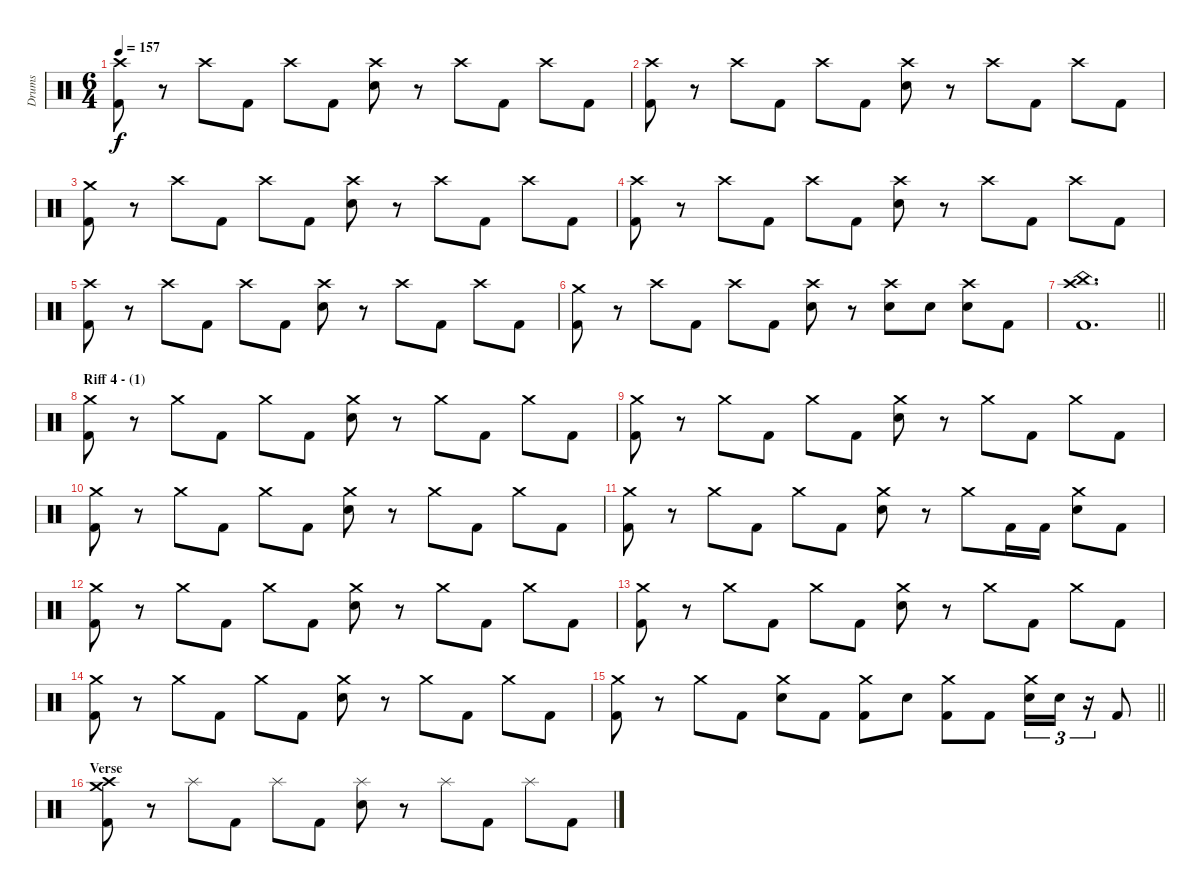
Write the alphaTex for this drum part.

\track ("Drums" "Drums") {instrument percussion}
\staff {score}
\articulation defaults
\ts (6 4)
\tempo 157
\clef neutral
\ks c
("Crash high (hit)" "Kick (hit) 2").8{dy f} r.8 "Crash high (hit)".8 "Kick (hit) 2".8 "Crash high (hit)".8 "Kick (hit) 2".8 ("Crash high (hit)" "Electric Snare (hit)").8 r.8 "Crash high (hit)".8 "Kick (hit) 2".8 "Crash high (hit)".8 "Kick (hit) 2".8 |
("Crash high (hit)" "Kick (hit) 2").8 r.8 "Crash high (hit)".8 "Kick (hit) 2".8 "Crash high (hit)".8 "Kick (hit) 2".8 ("Crash high (hit)" "Electric Snare (hit)").8 r.8 "Crash high (hit)".8 "Kick (hit) 2".8 "Crash high (hit)".8 "Kick (hit) 2".8 |
("Crash medium (hit)" "Kick (hit) 2").8 r.8 "Crash high (hit)".8 "Kick (hit) 2".8 "Crash high (hit)".8 "Kick (hit) 2".8 ("Crash high (hit)" "Electric Snare (hit)").8 r.8 "Crash high (hit)".8 "Kick (hit) 2".8 "Crash high (hit)".8 "Kick (hit) 2".8 |
("Crash high (hit)" "Kick (hit) 2").8 r.8 "Crash high (hit)".8 "Kick (hit) 2".8 "Crash high (hit)".8 "Kick (hit) 2".8 ("Crash high (hit)" "Electric Snare (hit)").8 r.8 "Crash high (hit)".8 "Kick (hit) 2".8 "Crash high (hit)".8 "Kick (hit) 2".8 |
("Crash high (hit)" "Kick (hit) 2").8 r.8 "Crash high (hit)".8 "Kick (hit) 2".8 "Crash high (hit)".8 "Kick (hit) 2".8 ("Crash high (hit)" "Electric Snare (hit)").8 r.8 "Crash high (hit)".8 "Kick (hit) 2".8 "Crash high (hit)".8 "Kick (hit) 2".8 |
("Crash medium (hit)" "Kick (hit) 2").8 r.8 "Crash high (hit)".8 "Kick (hit) 2".8 "Crash high (hit)".8 "Kick (hit) 2".8 ("Crash high (hit)" "Electric Snare (hit)").8 r.8 ("Crash high (hit)" "Electric Snare (hit)").8 "Electric Snare (hit)".8 ("Crash high (hit)" "Electric Snare (hit)").8 "Kick (hit) 2".8 |
\barLineRight lightlight
("China (hit)" "Crash high (hit)" "Kick (hit) 2").1{d} |
\section ("" "Riff 4 - (1)")
("Crash medium (hit)" "Kick (hit) 2").8 r.8 "Crash medium (hit)".8 "Kick (hit) 2".8 "Crash medium (hit)".8 "Kick (hit) 2".8 ("Crash medium (hit)" "Electric Snare (hit)").8 r.8 "Crash medium (hit)".8 "Kick (hit) 2".8 "Crash medium (hit)".8 "Kick (hit) 2".8 |
("Crash medium (hit)" "Kick (hit) 2").8 r.8 "Crash medium (hit)".8 "Kick (hit) 2".8 "Crash medium (hit)".8 "Kick (hit) 2".8 ("Crash medium (hit)" "Electric Snare (hit)").8 r.8 "Crash medium (hit)".8 "Kick (hit) 2".8 "Crash medium (hit)".8 "Kick (hit) 2".8 |
("Crash medium (hit)" "Kick (hit) 2").8 r.8 "Crash medium (hit)".8 "Kick (hit) 2".8 "Crash medium (hit)".8 "Kick (hit) 2".8 ("Crash medium (hit)" "Electric Snare (hit)").8 r.8 "Crash medium (hit)".8 "Kick (hit) 2".8 "Crash medium (hit)".8 "Kick (hit) 2".8 |
("Crash medium (hit)" "Kick (hit) 2").8 r.8 "Crash medium (hit)".8 "Kick (hit) 2".8 "Crash medium (hit)".8 "Kick (hit) 2".8 ("Crash medium (hit)" "Electric Snare (hit)").8 r.8 "Crash medium (hit)".8 "Kick (hit) 2".16 "Kick (hit) 2".16 ("Crash medium (hit)" "Electric Snare (hit)").8 "Kick (hit) 2".8 |
("Crash medium (hit)" "Kick (hit) 2").8 r.8 "Crash medium (hit)".8 "Kick (hit) 2".8 "Crash medium (hit)".8 "Kick (hit) 2".8 ("Crash medium (hit)" "Electric Snare (hit)").8 r.8 "Crash medium (hit)".8 "Kick (hit) 2".8 "Crash medium (hit)".8 "Kick (hit) 2".8 |
("Crash medium (hit)" "Kick (hit) 2").8 r.8 "Crash medium (hit)".8 "Kick (hit) 2".8 "Crash medium (hit)".8 "Kick (hit) 2".8 ("Crash medium (hit)" "Electric Snare (hit)").8 r.8 "Crash medium (hit)".8 "Kick (hit) 2".8 "Crash medium (hit)".8 "Kick (hit) 2".8 |
("Crash medium (hit)" "Kick (hit) 2").8 r.8 "Crash medium (hit)".8 "Kick (hit) 2".8 "Crash medium (hit)".8 "Kick (hit) 2".8 ("Crash medium (hit)" "Electric Snare (hit)").8 r.8 "Crash medium (hit)".8 "Kick (hit) 2".8 "Crash medium (hit)".8 "Kick (hit) 2".8 |
\barLineRight lightlight
("Crash medium (hit)" "Kick (hit) 2").8 r.8 "Crash medium (hit)".8 "Kick (hit) 2".8 ("Crash medium (hit)" "Electric Snare (hit)").8 "Kick (hit) 2".8 ("Crash medium (hit)" "Kick (hit) 2").8 "Electric Snare (hit)".8 ("Crash medium (hit)" "Kick (hit) 2").8 "Kick (hit) 2".8 ("Crash medium (hit)" "Electric Snare (hit)").16{tu (3 2)} "Electric Snare (hit)".16{tu (3 2)} r.16{tu (3 2)} "Kick (hit) 2".8 |
\section ("" "Verse")
("Crash high (hit)" "Crash medium (hit)" "Kick (hit) 2").8 r.8 "Splash (hit)".8 "Kick (hit) 2".8 "Splash (hit)".8 "Kick (hit) 2".8 ("Splash (hit)" "Electric Snare (hit)").8 r.8 "Splash (hit)".8 "Kick (hit) 2".8 "Splash (hit)".8 "Kick (hit) 2".8
